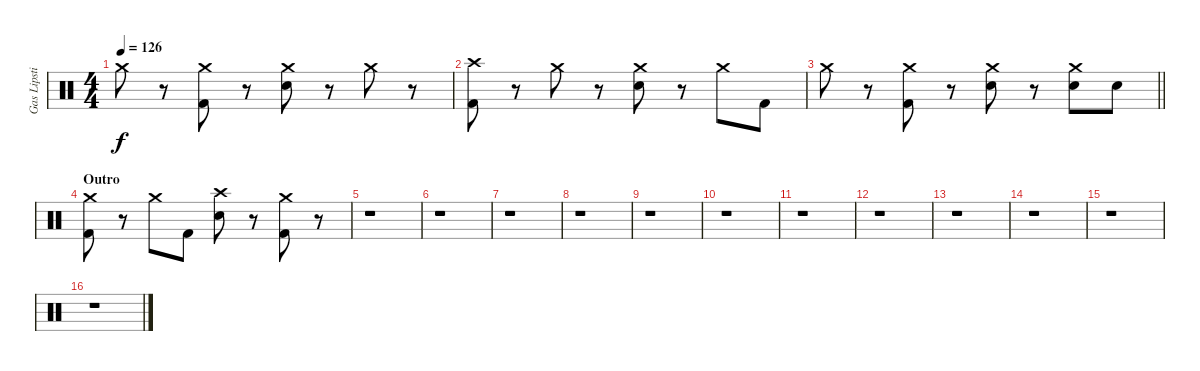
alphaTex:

\track ("Gas Lipstick (Drums)" "Gas Lipsti") {instrument percussion}
\staff {score}
\articulation defaults
\ts (4 4)
\tempo 126
\clef neutral
\ks c "Crash medium (hit)".8{dy f}
r.8 ("Crash medium (hit)" "Kick (hit) 2").8 r.8 ("Crash medium (hit)" "Snare (hit) 2").8 r.8 "Crash medium (hit)".8 r.8 |
("Crash high (hit)" "Kick (hit) 2").8 r.8 "Crash medium (hit)".8 r.8 ("Crash medium (hit)" "Snare (hit) 2").8 r.8 "Crash medium (hit)".8 "Kick (hit) 2".8 |
\barLineRight lightlight "Crash medium (hit)".8
r.8 ("Crash medium (hit)" "Kick (hit) 2").8 r.8 ("Crash medium (hit)" "Snare (hit) 2").8 r.8 ("Crash medium (hit)" "Snare (hit) 2").8 "Snare (hit) 2".8 |
\section ("" "Outro")
("Crash medium (hit)" "Kick (hit) 2").8 r.8 "Crash medium (hit)".8 "Kick (hit) 2".8 ("Crash high (hit)" "Snare (hit) 2").8 r.8 ("Crash medium (hit)" "Kick (hit) 2").8 r.8 |
r.1 |
r.1 |
r.1 |
r.1 |
r.1 |
r.1 |
r.1 |
r.1 |
r.1 |
r.1 |
r.1 |
r.1
